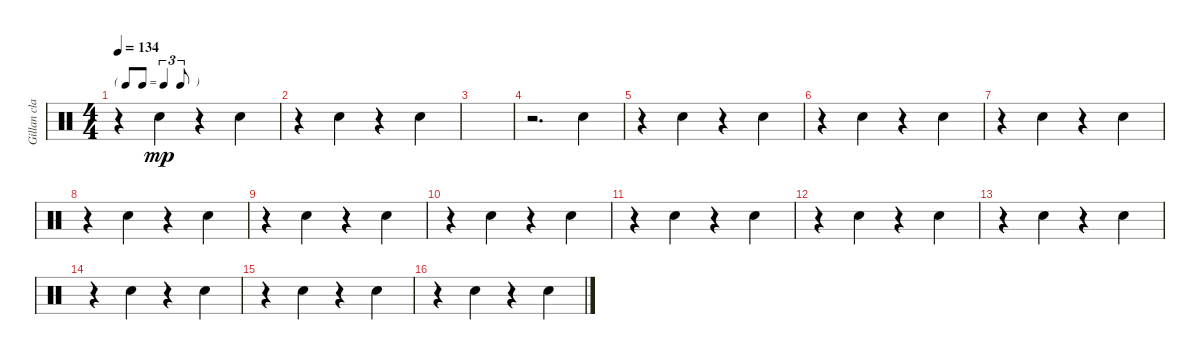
\track ("Gillan claps along" "Gillan cla") {instrument percussion}
\staff {score}
\articulation defaults
\ts (4 4)
\tf triplet8th
\tempo 134
\clef neutral
\ks c
r.4{dy mp} "Hand Clap (hit)".4 r.4 "Hand Clap (hit)".4 |
r.4 "Hand Clap (hit)".4 r.4 "Hand Clap (hit)".4 |
|
r.2{d} "Hand Clap (hit)".4 |
r.4 "Hand Clap (hit)".4 r.4 "Hand Clap (hit)".4 |
r.4 "Hand Clap (hit)".4 r.4 "Hand Clap (hit)".4 |
r.4 "Hand Clap (hit)".4 r.4 "Hand Clap (hit)".4 |
r.4 "Hand Clap (hit)".4 r.4 "Hand Clap (hit)".4 |
r.4 "Hand Clap (hit)".4 r.4 "Hand Clap (hit)".4 |
r.4 "Hand Clap (hit)".4 r.4 "Hand Clap (hit)".4 |
r.4 "Hand Clap (hit)".4 r.4 "Hand Clap (hit)".4 |
r.4 "Hand Clap (hit)".4 r.4 "Hand Clap (hit)".4 |
r.4 "Hand Clap (hit)".4 r.4 "Hand Clap (hit)".4 |
r.4 "Hand Clap (hit)".4 r.4 "Hand Clap (hit)".4 |
r.4 "Hand Clap (hit)".4 r.4 "Hand Clap (hit)".4 |
r.4 "Hand Clap (hit)".4 r.4 "Hand Clap (hit)".4
